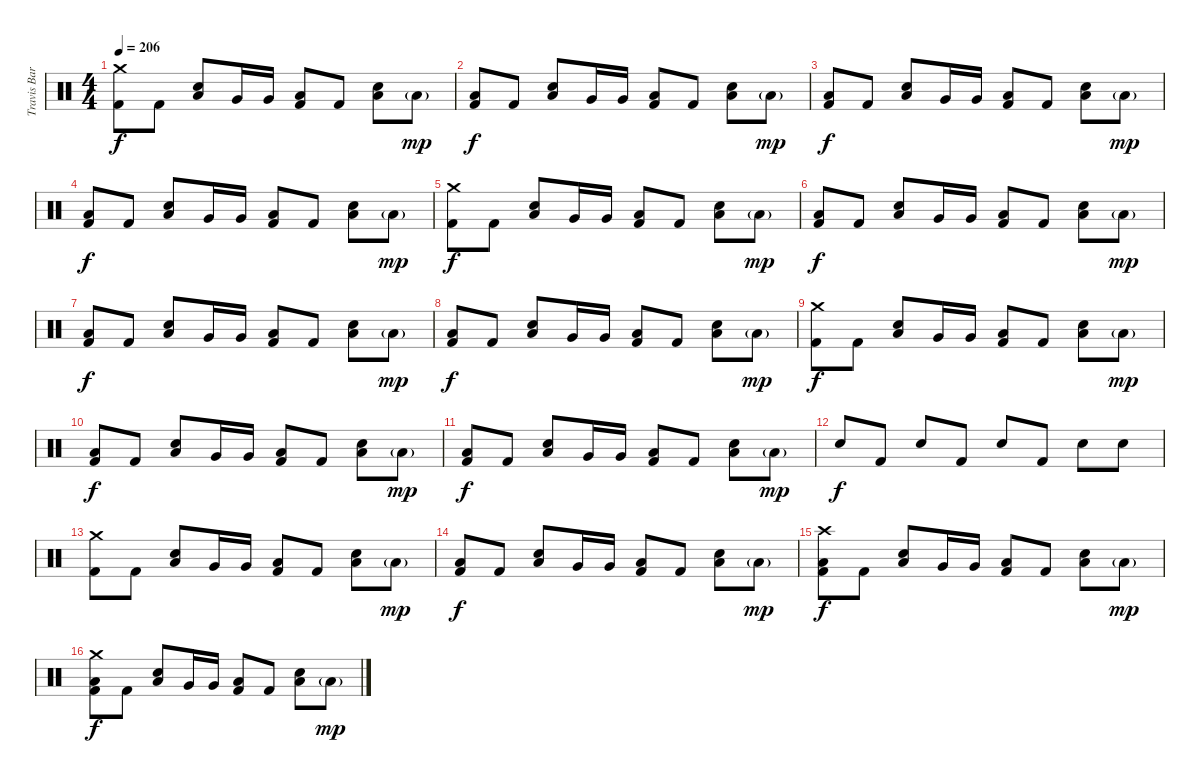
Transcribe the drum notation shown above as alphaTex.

\track ("Travis Barker - Drums" "Travis Bar") {instrument percussion}
\staff {score}
\articulation defaults
\ts (4 4)
\tempo 206
\clef neutral
\ks c
("Crash medium (hit)" "Kick (hit) 2").8{dy f} "Kick (hit) 2".8 ("Low Floor Tom (hit)" "Electric Snare (hit)").8 "Very Low Tom (hit)".16 "Very Low Tom (hit)".16 ("Low Floor Tom (hit)" "Kick (hit) 2").8 "Kick (hit) 2".8 ("Low Floor Tom (hit)" "Electric Snare (hit)").8 "Low Floor Tom (hit)"{g}.8{dy mp} |
("Low Floor Tom (hit)" "Kick (hit) 2").8{dy f} "Kick (hit) 2".8 ("Low Floor Tom (hit)" "Electric Snare (hit)").8 "Very Low Tom (hit)".16 "Very Low Tom (hit)".16 ("Low Floor Tom (hit)" "Kick (hit) 2").8 "Kick (hit) 2".8 ("Low Floor Tom (hit)" "Electric Snare (hit)").8 "Low Floor Tom (hit)"{g}.8{dy mp} |
("Low Floor Tom (hit)" "Kick (hit) 2").8{dy f} "Kick (hit) 2".8 ("Low Floor Tom (hit)" "Electric Snare (hit)").8 "Very Low Tom (hit)".16 "Very Low Tom (hit)".16 ("Low Floor Tom (hit)" "Kick (hit) 2").8 "Kick (hit) 2".8 ("Low Floor Tom (hit)" "Electric Snare (hit)").8 "Low Floor Tom (hit)"{g}.8{dy mp} |
("Low Floor Tom (hit)" "Kick (hit) 2").8{dy f} "Kick (hit) 2".8 ("Low Floor Tom (hit)" "Electric Snare (hit)").8 "Very Low Tom (hit)".16 "Very Low Tom (hit)".16 ("Low Floor Tom (hit)" "Kick (hit) 2").8 "Kick (hit) 2".8 ("Low Floor Tom (hit)" "Electric Snare (hit)").8 "Low Floor Tom (hit)"{g}.8{dy mp} |
("Crash medium (hit)" "Kick (hit) 2").8{dy f} "Kick (hit) 2".8 ("Low Floor Tom (hit)" "Electric Snare (hit)").8 "Very Low Tom (hit)".16 "Very Low Tom (hit)".16 ("Low Floor Tom (hit)" "Kick (hit) 2").8 "Kick (hit) 2".8 ("Low Floor Tom (hit)" "Electric Snare (hit)").8 "Low Floor Tom (hit)"{g}.8{dy mp} |
("Low Floor Tom (hit)" "Kick (hit) 2").8{dy f} "Kick (hit) 2".8 ("Low Floor Tom (hit)" "Electric Snare (hit)").8 "Very Low Tom (hit)".16 "Very Low Tom (hit)".16 ("Low Floor Tom (hit)" "Kick (hit) 2").8 "Kick (hit) 2".8 ("Low Floor Tom (hit)" "Electric Snare (hit)").8 "Low Floor Tom (hit)"{g}.8{dy mp} |
("Low Floor Tom (hit)" "Kick (hit) 2").8{dy f} "Kick (hit) 2".8 ("Low Floor Tom (hit)" "Electric Snare (hit)").8 "Very Low Tom (hit)".16 "Very Low Tom (hit)".16 ("Low Floor Tom (hit)" "Kick (hit) 2").8 "Kick (hit) 2".8 ("Low Floor Tom (hit)" "Electric Snare (hit)").8 "Low Floor Tom (hit)"{g}.8{dy mp} |
("Low Floor Tom (hit)" "Kick (hit) 2").8{dy f} "Kick (hit) 2".8 ("Low Floor Tom (hit)" "Electric Snare (hit)").8 "Very Low Tom (hit)".16 "Very Low Tom (hit)".16 ("Low Floor Tom (hit)" "Kick (hit) 2").8 "Kick (hit) 2".8 ("Low Floor Tom (hit)" "Electric Snare (hit)").8 "Low Floor Tom (hit)"{g}.8{dy mp} |
("Crash medium (hit)" "Kick (hit) 2").8{dy f} "Kick (hit) 2".8 ("Low Floor Tom (hit)" "Electric Snare (hit)").8 "Very Low Tom (hit)".16 "Very Low Tom (hit)".16 ("Low Floor Tom (hit)" "Kick (hit) 2").8 "Kick (hit) 2".8 ("Low Floor Tom (hit)" "Electric Snare (hit)").8 "Low Floor Tom (hit)"{g}.8{dy mp} |
("Low Floor Tom (hit)" "Kick (hit) 2").8{dy f} "Kick (hit) 2".8 ("Low Floor Tom (hit)" "Electric Snare (hit)").8 "Very Low Tom (hit)".16 "Very Low Tom (hit)".16 ("Low Floor Tom (hit)" "Kick (hit) 2").8 "Kick (hit) 2".8 ("Low Floor Tom (hit)" "Electric Snare (hit)").8 "Low Floor Tom (hit)"{g}.8{dy mp} |
("Low Floor Tom (hit)" "Kick (hit) 2").8{dy f} "Kick (hit) 2".8 ("Low Floor Tom (hit)" "Electric Snare (hit)").8 "Very Low Tom (hit)".16 "Very Low Tom (hit)".16 ("Low Floor Tom (hit)" "Kick (hit) 2").8 "Kick (hit) 2".8 ("Low Floor Tom (hit)" "Electric Snare (hit)").8 "Low Floor Tom (hit)"{g}.8{dy mp} |
"Electric Snare (hit)".8{dy f} "Kick (hit) 2".8 "Electric Snare (hit)".8 "Kick (hit) 2".8 "Electric Snare (hit)".8 "Kick (hit) 2".8 "Electric Snare (hit)".8 "Electric Snare (hit)".8 |
("Crash medium (hit)" "Kick (hit) 2").8 "Kick (hit) 2".8 ("Low Floor Tom (hit)" "Electric Snare (hit)").8 "Very Low Tom (hit)".16 "Very Low Tom (hit)".16 ("Low Floor Tom (hit)" "Kick (hit) 2").8 "Kick (hit) 2".8 ("Low Floor Tom (hit)" "Electric Snare (hit)").8 "Low Floor Tom (hit)"{g}.8{dy mp} |
("Low Floor Tom (hit)" "Kick (hit) 2").8{dy f} "Kick (hit) 2".8 ("Low Floor Tom (hit)" "Electric Snare (hit)").8 "Very Low Tom (hit)".16 "Very Low Tom (hit)".16 ("Low Floor Tom (hit)" "Kick (hit) 2").8 "Kick (hit) 2".8 ("Low Floor Tom (hit)" "Electric Snare (hit)").8 "Low Floor Tom (hit)"{g}.8{dy mp} |
("Crash high (hit)" "Low Floor Tom (hit)" "Kick (hit) 2").8{dy f} "Kick (hit) 2".8 ("Low Floor Tom (hit)" "Electric Snare (hit)").8 "Very Low Tom (hit)".16 "Very Low Tom (hit)".16 ("Low Floor Tom (hit)" "Kick (hit) 2").8 "Kick (hit) 2".8 ("Low Floor Tom (hit)" "Electric Snare (hit)").8 "Low Floor Tom (hit)"{g}.8{dy mp} |
("Crash medium (hit)" "Low Floor Tom (hit)" "Kick (hit) 2").8{dy f} "Kick (hit) 2".8 ("Low Floor Tom (hit)" "Electric Snare (hit)").8 "Very Low Tom (hit)".16 "Very Low Tom (hit)".16 ("Low Floor Tom (hit)" "Kick (hit) 2").8 "Kick (hit) 2".8 ("Low Floor Tom (hit)" "Electric Snare (hit)").8 "Low Floor Tom (hit)"{g}.8{dy mp}
